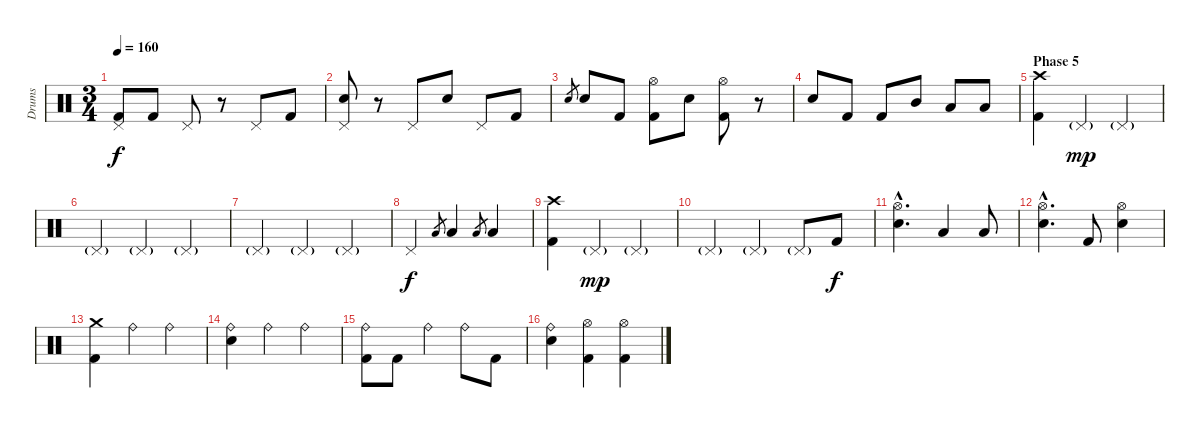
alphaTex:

\track ("Drums" "Drums") {instrument percussion}
\staff {score}
\articulation defaults
\ts (3 4)
\tempo 160
\clef neutral
\ks c
("Pedal Hi-Hat (hit)" "Kick (hit) 2").8{dy f} "Kick (hit) 2".8 "Pedal Hi-Hat (hit)".8 r.8 "Pedal Hi-Hat (hit)".8 "Kick (hit) 2".8 |
("Pedal Hi-Hat (hit)" "Snare (hit) 2").8 r.8 "Pedal Hi-Hat (hit)".8 "Snare (hit) 2".8 "Pedal Hi-Hat (hit)".8 "Kick (hit) 2".8 |
"Snare (hit) 2".8{gr} "Snare (hit) 2".8 "Kick (hit) 2".8 ("Hi-Hat (open)" "Kick (hit) 2").8 "Snare (hit) 2".8 ("Hi-Hat (open)" "Kick (hit) 2").8 r.8 |
"Snare (hit) 2".8 "Kick (hit) 2".8 "Kick (hit) 2".8 "Mid Tom (hit)".8 "Low Tom (hit)".8 "Low Floor Tom (hit)".8 |
\section ("" "Phase 5")
("Crash high (hit)" "Kick (hit) 2").4 "Pedal Hi-Hat (hit)"{g}.4{dy mp} "Pedal Hi-Hat (hit)"{g}.4 |
"Pedal Hi-Hat (hit)"{g}.4 "Pedal Hi-Hat (hit)"{g}.4 "Pedal Hi-Hat (hit)"{g}.4 |
"Pedal Hi-Hat (hit)"{g}.4 "Pedal Hi-Hat (hit)"{g}.4 "Pedal Hi-Hat (hit)"{g}.4 |
"Pedal Hi-Hat (hit)".4{dy f} "Low Tom (hit)".8{gr} "Low Tom (hit)".4 "Low Floor Tom (hit)".8{gr} "Low Floor Tom (hit)".4 |
("Crash high (hit)" "Kick (hit) 2").4 "Pedal Hi-Hat (hit)"{g}.4{dy mp} "Pedal Hi-Hat (hit)"{g}.4 |
"Pedal Hi-Hat (hit)"{g}.4 "Pedal Hi-Hat (hit)"{g}.4 "Pedal Hi-Hat (hit)"{g}.8 "Kick (hit) 2".8{dy f} |
("Hi-Hat (open)"{hac} "Snare (hit) 2"{hac}).4{d} "Low Tom (hit)".4 "Low Floor Tom (hit)".8 |
("Hi-Hat (open)"{hac} "Snare (hit) 2"{hac}).4{d} "Kick (hit) 2".8 ("Hi-Hat (open)" "Snare (hit) 2").4 |
("Crash medium (hit)" "Kick (hit) 2").4 "Ride (bell)".4 "Ride (bell)".4 |
("Ride (bell)" "Snare (hit) 2").4 "Ride (bell)".4 "Ride (bell)".4 |
("Ride (bell)" "Kick (hit) 2").8 "Kick (hit) 2".8 "Ride (bell)".4 "Ride (bell)".8 "Kick (hit) 2".8 |
("Ride (bell)" "Snare (hit) 2").4 ("Hi-Hat (open)" "Kick (hit) 2").4 ("Hi-Hat (open)" "Kick (hit) 2").4
